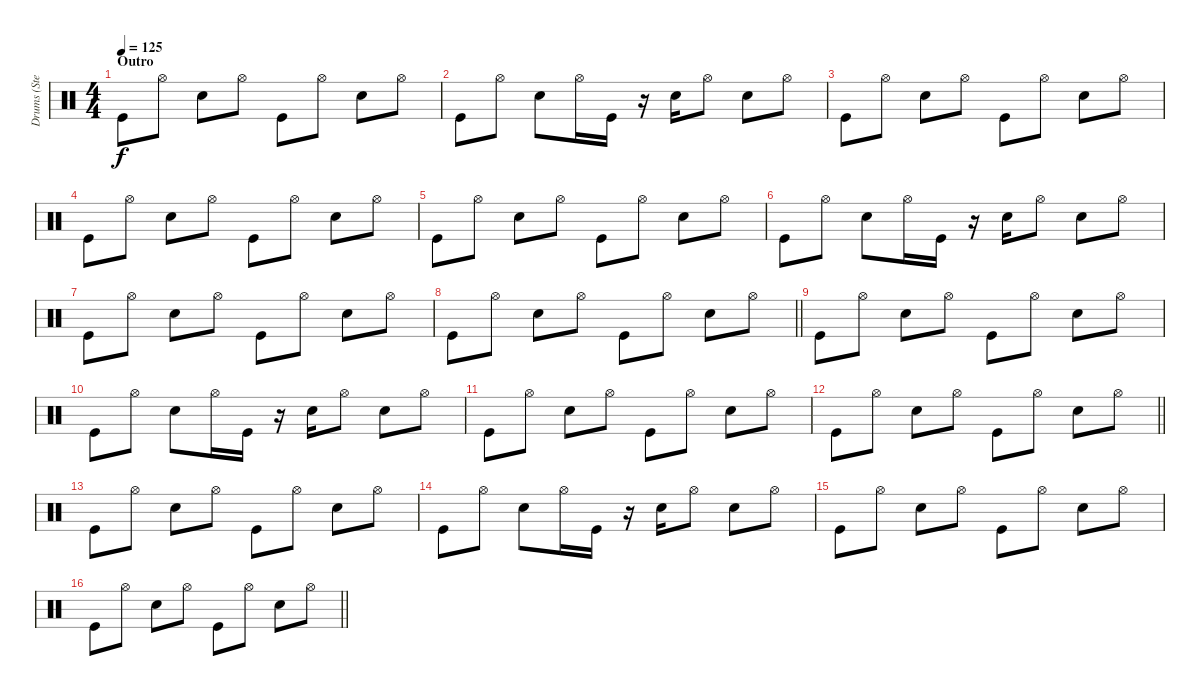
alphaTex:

\track ("Drums (Steve)" "Drums (Ste") {instrument percussion}
\staff {score}
\articulation defaults
\ts (4 4)
\section ("" "Outro")
\tempo 125
\clef neutral
\ks c "Kick (hit)".8{dy f volume 13} "Hi-Hat (open)".8 "Electric Snare (hit)".8 "Hi-Hat (open)".8 "Kick (hit)".8 "Hi-Hat (open)".8 "Electric Snare (hit)".8 "Hi-Hat (open)".8
|
"Kick (hit)".8 "Hi-Hat (open)".8 "Electric Snare (hit)".8 "Hi-Hat (open)".16 "Kick (hit)".16 r.16 "Electric Snare (hit)".16 "Hi-Hat (open)".8 "Electric Snare (hit)".8 "Hi-Hat (open)".8 |
"Kick (hit)".8 "Hi-Hat (open)".8 "Electric Snare (hit)".8 "Hi-Hat (open)".8 "Kick (hit)".8 "Hi-Hat (open)".8 "Electric Snare (hit)".8 "Hi-Hat (open)".8 |
"Kick (hit)".8 "Hi-Hat (open)".8 "Electric Snare (hit)".8 "Hi-Hat (open)".8 "Kick (hit)".8 "Hi-Hat (open)".8 "Electric Snare (hit)".8 "Hi-Hat (open)".8 |
"Kick (hit)".8 "Hi-Hat (open)".8 "Electric Snare (hit)".8 "Hi-Hat (open)".8 "Kick (hit)".8 "Hi-Hat (open)".8 "Electric Snare (hit)".8 "Hi-Hat (open)".8 |
"Kick (hit)".8 "Hi-Hat (open)".8 "Electric Snare (hit)".8 "Hi-Hat (open)".16 "Kick (hit)".16 r.16 "Electric Snare (hit)".16 "Hi-Hat (open)".8 "Electric Snare (hit)".8 "Hi-Hat (open)".8 |
"Kick (hit)".8 "Hi-Hat (open)".8 "Electric Snare (hit)".8 "Hi-Hat (open)".8 "Kick (hit)".8 "Hi-Hat (open)".8 "Electric Snare (hit)".8 "Hi-Hat (open)".8 |
\barLineRight lightlight "Kick (hit)".8 "Hi-Hat (open)".8 "Electric Snare (hit)".8 "Hi-Hat (open)".8 "Kick (hit)".8 "Hi-Hat (open)".8 "Electric Snare (hit)".8 "Hi-Hat (open)".8
|
"Kick (hit)".8 "Hi-Hat (open)".8 "Electric Snare (hit)".8 "Hi-Hat (open)".8 "Kick (hit)".8 "Hi-Hat (open)".8 "Electric Snare (hit)".8 "Hi-Hat (open)".8 |
"Kick (hit)".8 "Hi-Hat (open)".8 "Electric Snare (hit)".8 "Hi-Hat (open)".16 "Kick (hit)".16 r.16 "Electric Snare (hit)".16 "Hi-Hat (open)".8 "Electric Snare (hit)".8 "Hi-Hat (open)".8 |
"Kick (hit)".8 "Hi-Hat (open)".8 "Electric Snare (hit)".8 "Hi-Hat (open)".8 "Kick (hit)".8 "Hi-Hat (open)".8 "Electric Snare (hit)".8 "Hi-Hat (open)".8 |
\barLineRight lightlight "Kick (hit)".8 "Hi-Hat (open)".8 "Electric Snare (hit)".8 "Hi-Hat (open)".8 "Kick (hit)".8 "Hi-Hat (open)".8 "Electric Snare (hit)".8 "Hi-Hat (open)".8
|
"Kick (hit)".8 "Hi-Hat (open)".8 "Electric Snare (hit)".8 "Hi-Hat (open)".8 "Kick (hit)".8 "Hi-Hat (open)".8 "Electric Snare (hit)".8 "Hi-Hat (open)".8 |
"Kick (hit)".8 "Hi-Hat (open)".8 "Electric Snare (hit)".8 "Hi-Hat (open)".16 "Kick (hit)".16 r.16 "Electric Snare (hit)".16 "Hi-Hat (open)".8 "Electric Snare (hit)".8 "Hi-Hat (open)".8 |
"Kick (hit)".8 "Hi-Hat (open)".8 "Electric Snare (hit)".8 "Hi-Hat (open)".8 "Kick (hit)".8 "Hi-Hat (open)".8 "Electric Snare (hit)".8 "Hi-Hat (open)".8 |
\barLineRight lightlight "Kick (hit)".8 "Hi-Hat (open)".8 "Electric Snare (hit)".8 "Hi-Hat (open)".8 "Kick (hit)".8 "Hi-Hat (open)".8 "Electric Snare (hit)".8 "Hi-Hat (open)".8
